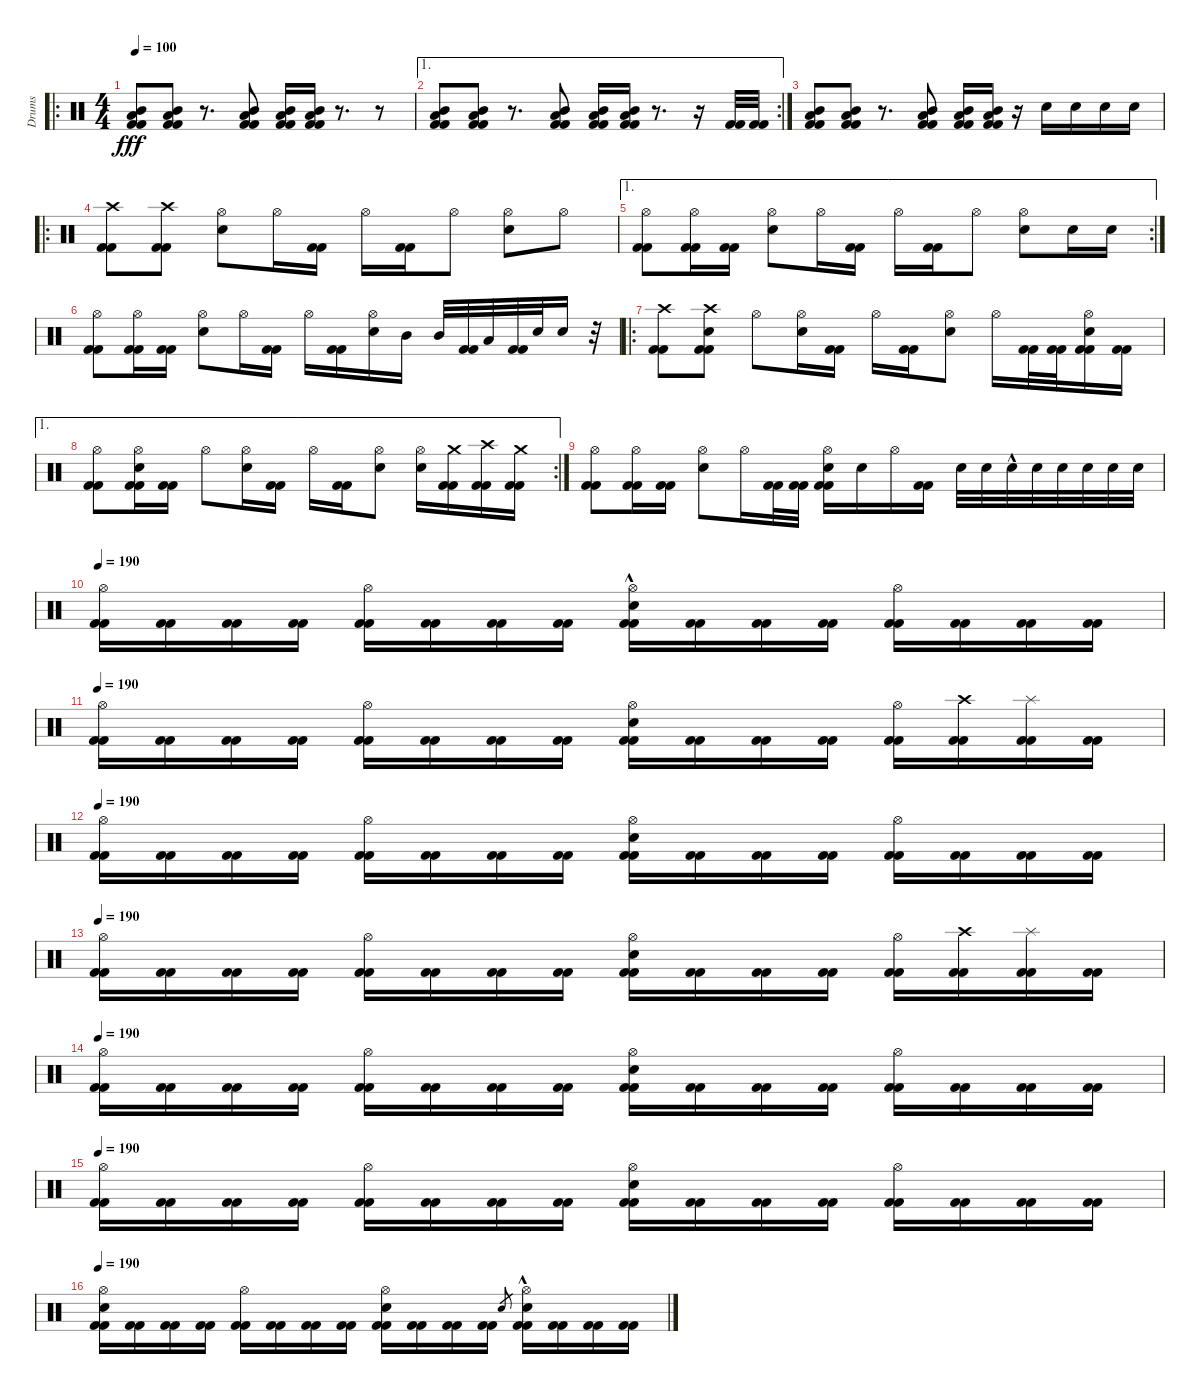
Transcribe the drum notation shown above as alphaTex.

\track ("Drums" "Drums") {instrument percussion}
\staff {score}
\articulation defaults
\ro
\ts (4 4)
\tempo 100
\clef neutral
\ks c
("Mid Tom (hit)" "Low Tom (hit)" "Kick (hit) 2" "Kick (hit) 2").8{dy fff} ("Mid Tom (hit)" "Low Tom (hit)" "Kick (hit) 2" "Kick (hit) 2").8 r.8{d} ("Mid Tom (hit)" "Low Tom (hit)" "Kick (hit) 2" "Kick (hit) 2").8 ("Mid Tom (hit)" "Low Tom (hit)" "Kick (hit) 2" "Kick (hit) 2").16 ("Mid Tom (hit)" "Low Tom (hit)" "Kick (hit) 2" "Kick (hit) 2").16 r.8{d} r.8 |
\ae 1
\rc 2
("Mid Tom (hit)" "Low Tom (hit)" "Kick (hit) 2" "Kick (hit) 2").8 ("Mid Tom (hit)" "Low Tom (hit)" "Kick (hit) 2" "Kick (hit) 2").8 r.8{d} ("Mid Tom (hit)" "Low Tom (hit)" "Kick (hit) 2" "Kick (hit) 2").8 ("Mid Tom (hit)" "Low Tom (hit)" "Kick (hit) 2" "Kick (hit) 2").16 ("Mid Tom (hit)" "Low Tom (hit)" "Kick (hit) 2" "Kick (hit) 2").16 r.8{d} r.16 ("Kick (hit) 2" "Kick (hit) 2").32 ("Kick (hit) 2" "Kick (hit) 2").32 |
("Mid Tom (hit)" "Low Tom (hit)" "Kick (hit) 2" "Kick (hit) 2").8 ("Mid Tom (hit)" "Low Tom (hit)" "Kick (hit) 2" "Kick (hit) 2").8 r.8{d} ("Mid Tom (hit)" "Low Tom (hit)" "Kick (hit) 2" "Kick (hit) 2").8 ("Mid Tom (hit)" "Low Tom (hit)" "Kick (hit) 2" "Kick (hit) 2").16 ("Mid Tom (hit)" "Low Tom (hit)" "Kick (hit) 2" "Kick (hit) 2").16 r.16 "Electric Snare (hit)".16 "Electric Snare (hit)".16 "Electric Snare (hit)".16 "Electric Snare (hit)".16 |
\ro
("Crash high (hit)" "Kick (hit) 2" "Kick (hit) 2").8 ("Crash high (hit)" "Kick (hit) 2" "Kick (hit) 2").8 ("Hi-Hat (open)" "Electric Snare (hit)").8 "Hi-Hat (open)".16 ("Kick (hit) 2" "Kick (hit) 2").16 "Hi-Hat (open)".16 ("Kick (hit) 2" "Kick (hit) 2").16 "Hi-Hat (open)".8 ("Hi-Hat (open)" "Electric Snare (hit)").8 "Hi-Hat (open)".8 |
\ae 1
\rc 2
("Hi-Hat (open)" "Kick (hit) 2" "Kick (hit) 2").8 ("Hi-Hat (open)" "Kick (hit) 2" "Kick (hit) 2").16 ("Kick (hit) 2" "Kick (hit) 2").16 ("Hi-Hat (open)" "Electric Snare (hit)").8 "Hi-Hat (open)".16 ("Kick (hit) 2" "Kick (hit) 2").16 "Hi-Hat (open)".16 ("Kick (hit) 2" "Kick (hit) 2").16 "Hi-Hat (open)".8 ("Hi-Hat (open)" "Electric Snare (hit)").8 "Electric Snare (hit)".16 "Electric Snare (hit)".16 |
("Hi-Hat (open)" "Kick (hit) 2" "Kick (hit) 2").8 ("Hi-Hat (open)" "Kick (hit) 2" "Kick (hit) 2").16 ("Kick (hit) 2" "Kick (hit) 2").16 ("Hi-Hat (open)" "Electric Snare (hit)").8 "Hi-Hat (open)".16 ("Kick (hit) 2" "Kick (hit) 2").16 "Hi-Hat (open)".16 ("Kick (hit) 2" "Kick (hit) 2").16 ("Hi-Hat (open)" "Electric Snare (hit)").16 "Mid Tom (hit)".16 "Mid Tom (hit)".32 ("Kick (hit) 2" "Kick (hit) 2").32 "Low Tom (hit)".32 ("Kick (hit) 2" "Kick (hit) 2").32 "Electric Snare (hit)".32 "Electric Snare (hit)".16 r.32 |
\ro
("Crash high (hit)" "Kick (hit) 2" "Kick (hit) 2").8 ("Crash high (hit)" "Electric Snare (hit)" "Kick (hit) 2" "Kick (hit) 2").8 "Hi-Hat (open)".8 ("Hi-Hat (open)" "Electric Snare (hit)").16 ("Kick (hit) 2" "Kick (hit) 2").16 "Hi-Hat (open)".16 ("Kick (hit) 2" "Kick (hit) 2").16 ("Hi-Hat (open)" "Electric Snare (hit)").8 "Hi-Hat (open)".16 ("Kick (hit) 2" "Kick (hit) 2").32 ("Kick (hit) 2" "Kick (hit) 2").32 ("Hi-Hat (open)" "Electric Snare (hit)" "Kick (hit) 2" "Kick (hit) 2").16 ("Kick (hit) 2" "Kick (hit) 2").16 |
\ae 1
\rc 2
("Hi-Hat (open)" "Kick (hit) 2" "Kick (hit) 2").8 ("Hi-Hat (open)" "Electric Snare (hit)" "Kick (hit) 2" "Kick (hit) 2").16 ("Kick (hit) 2" "Kick (hit) 2").16 "Hi-Hat (open)".8 ("Hi-Hat (open)" "Electric Snare (hit)").16 ("Kick (hit) 2" "Kick (hit) 2").16 "Hi-Hat (open)".16 ("Kick (hit) 2" "Kick (hit) 2").16 ("Hi-Hat (open)" "Electric Snare (hit)").8 ("Hi-Hat (open)" "Electric Snare (hit)").16 ("Crash medium (hit)" "Kick (hit) 2" "Kick (hit) 2").16 ("Crash high (hit)" "Kick (hit) 2" "Kick (hit) 2").16 ("Crash medium (hit)" "Kick (hit) 2" "Kick (hit) 2").16 |
("Hi-Hat (open)" "Kick (hit) 2" "Kick (hit) 2").8 ("Hi-Hat (open)" "Kick (hit) 2" "Kick (hit) 2").16 ("Kick (hit) 2" "Kick (hit) 2").16 ("Hi-Hat (open)" "Electric Snare (hit)").8 "Hi-Hat (open)".16 ("Kick (hit) 2" "Kick (hit) 2").32 ("Kick (hit) 2" "Kick (hit) 2").32 ("Hi-Hat (open)" "Electric Snare (hit)" "Kick (hit) 2" "Kick (hit) 2").16 "Electric Snare (hit)".16 "Hi-Hat (open)".16 ("Kick (hit) 2" "Kick (hit) 2").16 "Electric Snare (hit)".32 "Electric Snare (hit)".32 "Electric Snare (hit)"{hac}.32 "Electric Snare (hit)".32 "Electric Snare (hit)".32 "Electric Snare (hit)".32 "Electric Snare (hit)".32 "Electric Snare (hit)".32 |
\tempo 190
("Hi-Hat (open)" "Kick (hit) 2" "Kick (hit) 2").16 ("Kick (hit) 2" "Kick (hit) 2").16 ("Kick (hit) 2" "Kick (hit) 2").16 ("Kick (hit) 2" "Kick (hit) 2").16 ("Hi-Hat (open)" "Kick (hit) 2" "Kick (hit) 2").16 ("Kick (hit) 2" "Kick (hit) 2").16 ("Kick (hit) 2" "Kick (hit) 2").16 ("Kick (hit) 2" "Kick (hit) 2").16 ("Hi-Hat (open)" "Electric Snare (hit)"{hac} "Kick (hit) 2" "Kick (hit) 2").16 ("Kick (hit) 2" "Kick (hit) 2").16 ("Kick (hit) 2" "Kick (hit) 2").16 ("Kick (hit) 2" "Kick (hit) 2").16 ("Hi-Hat (open)" "Kick (hit) 2" "Kick (hit) 2").16 ("Kick (hit) 2" "Kick (hit) 2").16 ("Kick (hit) 2" "Kick (hit) 2").16 ("Kick (hit) 2" "Kick (hit) 2").16 |
\tempo 190
("Hi-Hat (open)" "Kick (hit) 2" "Kick (hit) 2").16 ("Kick (hit) 2" "Kick (hit) 2").16 ("Kick (hit) 2" "Kick (hit) 2").16 ("Kick (hit) 2" "Kick (hit) 2").16 ("Hi-Hat (open)" "Kick (hit) 2" "Kick (hit) 2").16 ("Kick (hit) 2" "Kick (hit) 2").16 ("Kick (hit) 2" "Kick (hit) 2").16 ("Kick (hit) 2" "Kick (hit) 2").16 ("Hi-Hat (open)" "Electric Snare (hit)" "Kick (hit) 2" "Kick (hit) 2").16 ("Kick (hit) 2" "Kick (hit) 2").16 ("Kick (hit) 2" "Kick (hit) 2").16 ("Kick (hit) 2" "Kick (hit) 2").16 ("Hi-Hat (open)" "Kick (hit) 2" "Kick (hit) 2").16 ("Crash high (hit)" "Kick (hit) 2" "Kick (hit) 2").16 ("Splash (hit)" "Kick (hit) 2" "Kick (hit) 2").16 ("Kick (hit) 2" "Kick (hit) 2").16 |
\tempo 190
("Hi-Hat (open)" "Kick (hit) 2" "Kick (hit) 2").16 ("Kick (hit) 2" "Kick (hit) 2").16 ("Kick (hit) 2" "Kick (hit) 2").16 ("Kick (hit) 2" "Kick (hit) 2").16 ("Hi-Hat (open)" "Kick (hit) 2" "Kick (hit) 2").16 ("Kick (hit) 2" "Kick (hit) 2").16 ("Kick (hit) 2" "Kick (hit) 2").16 ("Kick (hit) 2" "Kick (hit) 2").16 ("Hi-Hat (open)" "Electric Snare (hit)" "Kick (hit) 2" "Kick (hit) 2").16 ("Kick (hit) 2" "Kick (hit) 2").16 ("Kick (hit) 2" "Kick (hit) 2").16 ("Kick (hit) 2" "Kick (hit) 2").16 ("Hi-Hat (open)" "Kick (hit) 2" "Kick (hit) 2").16 ("Kick (hit) 2" "Kick (hit) 2").16 ("Kick (hit) 2" "Kick (hit) 2").16 ("Kick (hit) 2" "Kick (hit) 2").16 |
\tempo 190
("Hi-Hat (open)" "Kick (hit) 2" "Kick (hit) 2").16 ("Kick (hit) 2" "Kick (hit) 2").16 ("Kick (hit) 2" "Kick (hit) 2").16 ("Kick (hit) 2" "Kick (hit) 2").16 ("Hi-Hat (open)" "Kick (hit) 2" "Kick (hit) 2").16 ("Kick (hit) 2" "Kick (hit) 2").16 ("Kick (hit) 2" "Kick (hit) 2").16 ("Kick (hit) 2" "Kick (hit) 2").16 ("Hi-Hat (open)" "Electric Snare (hit)" "Kick (hit) 2" "Kick (hit) 2").16 ("Kick (hit) 2" "Kick (hit) 2").16 ("Kick (hit) 2" "Kick (hit) 2").16 ("Kick (hit) 2" "Kick (hit) 2").16 ("Hi-Hat (open)" "Kick (hit) 2" "Kick (hit) 2").16 ("Crash high (hit)" "Kick (hit) 2" "Kick (hit) 2").16 ("Splash (hit)" "Kick (hit) 2" "Kick (hit) 2").16 ("Kick (hit) 2" "Kick (hit) 2").16 |
\tempo 190
("Hi-Hat (open)" "Kick (hit) 2" "Kick (hit) 2").16 ("Kick (hit) 2" "Kick (hit) 2").16 ("Kick (hit) 2" "Kick (hit) 2").16 ("Kick (hit) 2" "Kick (hit) 2").16 ("Hi-Hat (open)" "Kick (hit) 2" "Kick (hit) 2").16 ("Kick (hit) 2" "Kick (hit) 2").16 ("Kick (hit) 2" "Kick (hit) 2").16 ("Kick (hit) 2" "Kick (hit) 2").16 ("Hi-Hat (open)" "Electric Snare (hit)" "Kick (hit) 2" "Kick (hit) 2").16 ("Kick (hit) 2" "Kick (hit) 2").16 ("Kick (hit) 2" "Kick (hit) 2").16 ("Kick (hit) 2" "Kick (hit) 2").16 ("Hi-Hat (open)" "Kick (hit) 2" "Kick (hit) 2").16 ("Kick (hit) 2" "Kick (hit) 2").16 ("Kick (hit) 2" "Kick (hit) 2").16 ("Kick (hit) 2" "Kick (hit) 2").16 |
\tempo 190
("Hi-Hat (open)" "Kick (hit) 2" "Kick (hit) 2").16 ("Kick (hit) 2" "Kick (hit) 2").16 ("Kick (hit) 2" "Kick (hit) 2").16 ("Kick (hit) 2" "Kick (hit) 2").16 ("Hi-Hat (open)" "Kick (hit) 2" "Kick (hit) 2").16 ("Kick (hit) 2" "Kick (hit) 2").16 ("Kick (hit) 2" "Kick (hit) 2").16 ("Kick (hit) 2" "Kick (hit) 2").16 ("Hi-Hat (open)" "Electric Snare (hit)" "Kick (hit) 2" "Kick (hit) 2").16 ("Kick (hit) 2" "Kick (hit) 2").16 ("Kick (hit) 2" "Kick (hit) 2").16 ("Kick (hit) 2" "Kick (hit) 2").16 ("Hi-Hat (open)" "Kick (hit) 2" "Kick (hit) 2").16 ("Kick (hit) 2" "Kick (hit) 2").16 ("Kick (hit) 2" "Kick (hit) 2").16 ("Kick (hit) 2" "Kick (hit) 2").16 |
\tempo 190
("Hi-Hat (open)" "Electric Snare (hit)" "Kick (hit) 2" "Kick (hit) 2").16 ("Kick (hit) 2" "Kick (hit) 2").16 ("Kick (hit) 2" "Kick (hit) 2").16 ("Kick (hit) 2" "Kick (hit) 2").16 ("Hi-Hat (open)" "Kick (hit) 2" "Kick (hit) 2").16 ("Kick (hit) 2" "Kick (hit) 2").16 ("Kick (hit) 2" "Kick (hit) 2").16 ("Kick (hit) 2" "Kick (hit) 2").16 ("Hi-Hat (open)" "Electric Snare (hit)" "Kick (hit) 2" "Kick (hit) 2").16 ("Kick (hit) 2" "Kick (hit) 2").16 ("Kick (hit) 2" "Kick (hit) 2").16 ("Kick (hit) 2" "Kick (hit) 2").16 "Electric Snare (hit)".8{gr} ("Hi-Hat (open)" "Electric Snare (hit)"{hac} "Kick (hit) 2" "Kick (hit) 2").16 ("Kick (hit) 2" "Kick (hit) 2").16 ("Kick (hit) 2" "Kick (hit) 2").16 ("Kick (hit) 2" "Kick (hit) 2").16
